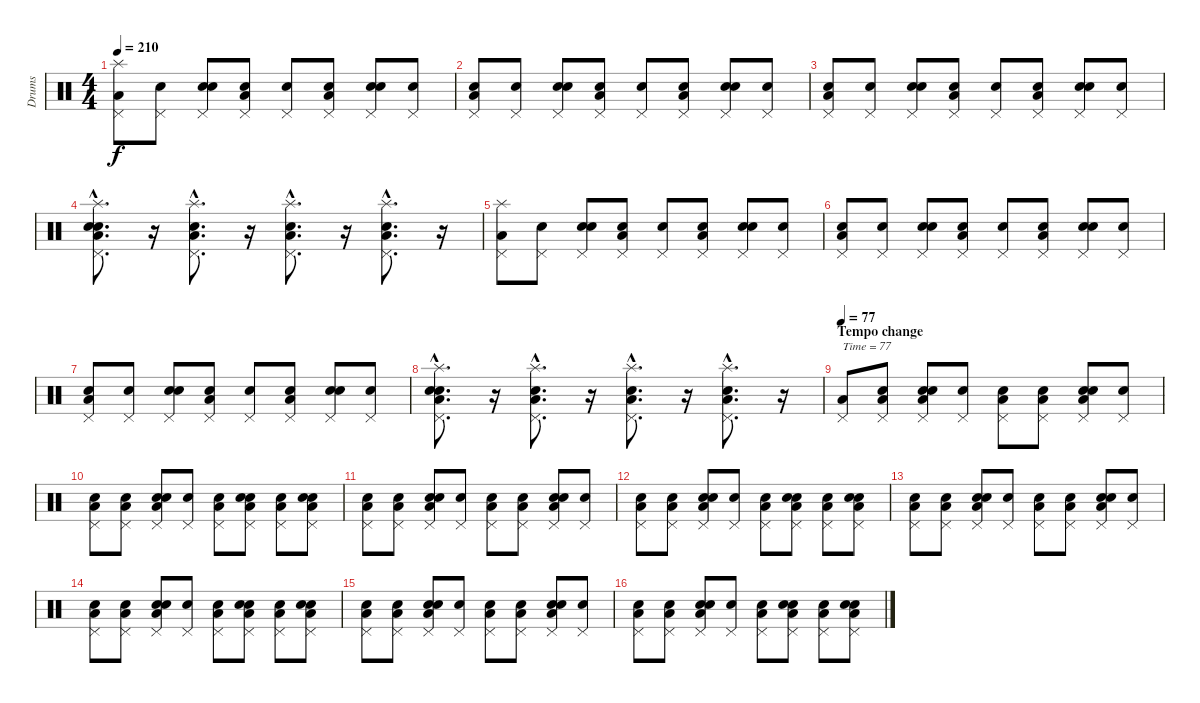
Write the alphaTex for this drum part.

\track ("Drums" "Drums") {instrument percussion}
\staff {score}
\articulation defaults
\ts (4 4)
\tempo 210
\clef neutral
\ks c
("Low Floor Tom (hit)" "Pedal Hi-Hat (hit)" "Splash (hit)").8{dy f} ("Snare (hit)" "Pedal Hi-Hat (hit)").8 ("Snare (hit)" "Electric Snare (hit)" "Pedal Hi-Hat (hit)").8 ("Snare (hit)" "Low Floor Tom (hit)" "Pedal Hi-Hat (hit)").8 ("Snare (hit)" "Pedal Hi-Hat (hit)").8 ("Snare (hit)" "Low Floor Tom (hit)" "Pedal Hi-Hat (hit)").8 ("Snare (hit)" "Electric Snare (hit)" "Pedal Hi-Hat (hit)").8 ("Snare (hit)" "Pedal Hi-Hat (hit)").8 |
("Snare (hit)" "Low Floor Tom (hit)" "Pedal Hi-Hat (hit)").8 ("Snare (hit)" "Pedal Hi-Hat (hit)").8 ("Snare (hit)" "Electric Snare (hit)" "Pedal Hi-Hat (hit)").8 ("Snare (hit)" "Low Floor Tom (hit)" "Pedal Hi-Hat (hit)").8 ("Snare (hit)" "Pedal Hi-Hat (hit)").8 ("Snare (hit)" "Low Floor Tom (hit)" "Pedal Hi-Hat (hit)").8 ("Snare (hit)" "Electric Snare (hit)" "Pedal Hi-Hat (hit)").8 ("Snare (hit)" "Pedal Hi-Hat (hit)").8 |
("Snare (hit)" "Low Floor Tom (hit)" "Pedal Hi-Hat (hit)").8 ("Snare (hit)" "Pedal Hi-Hat (hit)").8 ("Snare (hit)" "Electric Snare (hit)" "Pedal Hi-Hat (hit)").8 ("Snare (hit)" "Low Floor Tom (hit)" "Pedal Hi-Hat (hit)").8 ("Snare (hit)" "Pedal Hi-Hat (hit)").8 ("Snare (hit)" "Low Floor Tom (hit)" "Pedal Hi-Hat (hit)").8 ("Snare (hit)" "Electric Snare (hit)" "Pedal Hi-Hat (hit)").8 ("Snare (hit)" "Pedal Hi-Hat (hit)").8 |
("Snare (hit)"{hac} "Electric Snare (hit)"{hac} "Low Floor Tom (hit)"{hac} "Pedal Hi-Hat (hit)"{hac} "Splash (hit)"{hac}).8{d} r.16 ("Electric Snare (hit)"{hac} "Low Floor Tom (hit)"{hac} "Pedal Hi-Hat (hit)"{hac} "Splash (hit)"{hac}).8{d} r.16 ("Electric Snare (hit)"{hac} "Low Floor Tom (hit)"{hac} "Pedal Hi-Hat (hit)"{hac} "Splash (hit)"{hac}).8{d} r.16 ("Electric Snare (hit)"{hac} "Low Floor Tom (hit)"{hac} "Pedal Hi-Hat (hit)"{hac} "Splash (hit)"{hac}).8{d} r.16 |
("Low Floor Tom (hit)" "Pedal Hi-Hat (hit)" "Splash (hit)").8 ("Snare (hit)" "Pedal Hi-Hat (hit)").8 ("Snare (hit)" "Electric Snare (hit)" "Pedal Hi-Hat (hit)").8 ("Snare (hit)" "Low Floor Tom (hit)" "Pedal Hi-Hat (hit)").8 ("Snare (hit)" "Pedal Hi-Hat (hit)").8 ("Snare (hit)" "Low Floor Tom (hit)" "Pedal Hi-Hat (hit)").8 ("Snare (hit)" "Electric Snare (hit)" "Pedal Hi-Hat (hit)").8 ("Snare (hit)" "Pedal Hi-Hat (hit)").8 |
("Snare (hit)" "Low Floor Tom (hit)" "Pedal Hi-Hat (hit)").8 ("Snare (hit)" "Pedal Hi-Hat (hit)").8 ("Snare (hit)" "Electric Snare (hit)" "Pedal Hi-Hat (hit)").8 ("Snare (hit)" "Low Floor Tom (hit)" "Pedal Hi-Hat (hit)").8 ("Snare (hit)" "Pedal Hi-Hat (hit)").8 ("Snare (hit)" "Low Floor Tom (hit)" "Pedal Hi-Hat (hit)").8 ("Snare (hit)" "Electric Snare (hit)" "Pedal Hi-Hat (hit)").8 ("Snare (hit)" "Pedal Hi-Hat (hit)").8 |
("Snare (hit)" "Low Floor Tom (hit)" "Pedal Hi-Hat (hit)").8 ("Snare (hit)" "Pedal Hi-Hat (hit)").8 ("Snare (hit)" "Electric Snare (hit)" "Pedal Hi-Hat (hit)").8 ("Snare (hit)" "Low Floor Tom (hit)" "Pedal Hi-Hat (hit)").8 ("Snare (hit)" "Pedal Hi-Hat (hit)").8 ("Snare (hit)" "Low Floor Tom (hit)" "Pedal Hi-Hat (hit)").8 ("Snare (hit)" "Electric Snare (hit)" "Pedal Hi-Hat (hit)").8 ("Snare (hit)" "Pedal Hi-Hat (hit)").8 |
("Snare (hit)"{hac} "Electric Snare (hit)"{hac} "Low Floor Tom (hit)"{hac} "Pedal Hi-Hat (hit)"{hac} "Splash (hit)"{hac}).8{d} r.16 ("Electric Snare (hit)"{hac} "Low Floor Tom (hit)"{hac} "Pedal Hi-Hat (hit)"{hac} "Splash (hit)"{hac}).8{d} r.16 ("Electric Snare (hit)"{hac} "Low Floor Tom (hit)"{hac} "Pedal Hi-Hat (hit)"{hac} "Splash (hit)"{hac}).8{d} r.16 ("Electric Snare (hit)"{hac} "Low Floor Tom (hit)"{hac} "Pedal Hi-Hat (hit)"{hac} "Splash (hit)"{hac}).8{d} r.16 |
\section ("" "Tempo change")
\tempo 77
("Low Floor Tom (hit)" "Pedal Hi-Hat (hit)").8{txt "Time = 77"} ("Snare (hit)" "Low Floor Tom (hit)" "Pedal Hi-Hat (hit)").8 ("Snare (hit)" "Electric Snare (hit)" "Low Floor Tom (hit)" "Pedal Hi-Hat (hit)").8 ("Snare (hit)" "Pedal Hi-Hat (hit)").8 ("Snare (hit)" "Low Floor Tom (hit)" "Pedal Hi-Hat (hit)").8 ("Snare (hit)" "Low Floor Tom (hit)" "Pedal Hi-Hat (hit)").8 ("Snare (hit)" "Electric Snare (hit)" "Low Floor Tom (hit)" "Pedal Hi-Hat (hit)").8 ("Snare (hit)" "Pedal Hi-Hat (hit)").8 |
("Snare (hit)" "Low Floor Tom (hit)" "Pedal Hi-Hat (hit)").8 ("Snare (hit)" "Low Floor Tom (hit)" "Pedal Hi-Hat (hit)").8 ("Snare (hit)" "Electric Snare (hit)" "Low Floor Tom (hit)" "Pedal Hi-Hat (hit)").8 ("Snare (hit)" "Pedal Hi-Hat (hit)").8 ("Snare (hit)" "Low Floor Tom (hit)" "Pedal Hi-Hat (hit)").8 ("Snare (hit)" "Electric Snare (hit)" "Low Floor Tom (hit)" "Pedal Hi-Hat (hit)").8 ("Snare (hit)" "Low Floor Tom (hit)" "Pedal Hi-Hat (hit)").8 ("Snare (hit)" "Electric Snare (hit)" "Low Floor Tom (hit)" "Pedal Hi-Hat (hit)").8 |
("Snare (hit)" "Low Floor Tom (hit)" "Pedal Hi-Hat (hit)").8 ("Snare (hit)" "Low Floor Tom (hit)" "Pedal Hi-Hat (hit)").8 ("Snare (hit)" "Electric Snare (hit)" "Low Floor Tom (hit)" "Pedal Hi-Hat (hit)").8 ("Snare (hit)" "Pedal Hi-Hat (hit)").8 ("Snare (hit)" "Low Floor Tom (hit)" "Pedal Hi-Hat (hit)").8 ("Snare (hit)" "Low Floor Tom (hit)" "Pedal Hi-Hat (hit)").8 ("Snare (hit)" "Electric Snare (hit)" "Low Floor Tom (hit)" "Pedal Hi-Hat (hit)").8 ("Snare (hit)" "Pedal Hi-Hat (hit)").8 |
("Snare (hit)" "Low Floor Tom (hit)" "Pedal Hi-Hat (hit)").8 ("Snare (hit)" "Low Floor Tom (hit)" "Pedal Hi-Hat (hit)").8 ("Snare (hit)" "Electric Snare (hit)" "Low Floor Tom (hit)" "Pedal Hi-Hat (hit)").8 ("Snare (hit)" "Pedal Hi-Hat (hit)").8 ("Snare (hit)" "Low Floor Tom (hit)" "Pedal Hi-Hat (hit)").8 ("Snare (hit)" "Electric Snare (hit)" "Low Floor Tom (hit)" "Pedal Hi-Hat (hit)").8 ("Snare (hit)" "Low Floor Tom (hit)" "Pedal Hi-Hat (hit)").8 ("Snare (hit)" "Electric Snare (hit)" "Low Floor Tom (hit)" "Pedal Hi-Hat (hit)").8 |
("Snare (hit)" "Low Floor Tom (hit)" "Pedal Hi-Hat (hit)").8 ("Snare (hit)" "Low Floor Tom (hit)" "Pedal Hi-Hat (hit)").8 ("Snare (hit)" "Electric Snare (hit)" "Low Floor Tom (hit)" "Pedal Hi-Hat (hit)").8 ("Snare (hit)" "Pedal Hi-Hat (hit)").8 ("Snare (hit)" "Low Floor Tom (hit)" "Pedal Hi-Hat (hit)").8 ("Snare (hit)" "Low Floor Tom (hit)" "Pedal Hi-Hat (hit)").8 ("Snare (hit)" "Electric Snare (hit)" "Low Floor Tom (hit)" "Pedal Hi-Hat (hit)").8 ("Snare (hit)" "Pedal Hi-Hat (hit)").8 |
("Snare (hit)" "Low Floor Tom (hit)" "Pedal Hi-Hat (hit)").8 ("Snare (hit)" "Low Floor Tom (hit)" "Pedal Hi-Hat (hit)").8 ("Snare (hit)" "Electric Snare (hit)" "Low Floor Tom (hit)" "Pedal Hi-Hat (hit)").8 ("Snare (hit)" "Pedal Hi-Hat (hit)").8 ("Snare (hit)" "Low Floor Tom (hit)" "Pedal Hi-Hat (hit)").8 ("Snare (hit)" "Electric Snare (hit)" "Low Floor Tom (hit)" "Pedal Hi-Hat (hit)").8 ("Snare (hit)" "Low Floor Tom (hit)" "Pedal Hi-Hat (hit)").8 ("Snare (hit)" "Electric Snare (hit)" "Low Floor Tom (hit)" "Pedal Hi-Hat (hit)").8 |
("Snare (hit)" "Low Floor Tom (hit)" "Pedal Hi-Hat (hit)").8 ("Snare (hit)" "Low Floor Tom (hit)" "Pedal Hi-Hat (hit)").8 ("Snare (hit)" "Electric Snare (hit)" "Low Floor Tom (hit)" "Pedal Hi-Hat (hit)").8 ("Snare (hit)" "Pedal Hi-Hat (hit)").8 ("Snare (hit)" "Low Floor Tom (hit)" "Pedal Hi-Hat (hit)").8 ("Snare (hit)" "Low Floor Tom (hit)" "Pedal Hi-Hat (hit)").8 ("Snare (hit)" "Electric Snare (hit)" "Low Floor Tom (hit)" "Pedal Hi-Hat (hit)").8 ("Snare (hit)" "Pedal Hi-Hat (hit)").8 |
("Snare (hit)" "Low Floor Tom (hit)" "Pedal Hi-Hat (hit)").8 ("Snare (hit)" "Low Floor Tom (hit)" "Pedal Hi-Hat (hit)").8 ("Snare (hit)" "Electric Snare (hit)" "Low Floor Tom (hit)" "Pedal Hi-Hat (hit)").8 ("Snare (hit)" "Pedal Hi-Hat (hit)").8 ("Snare (hit)" "Low Floor Tom (hit)" "Pedal Hi-Hat (hit)").8 ("Snare (hit)" "Electric Snare (hit)" "Low Floor Tom (hit)" "Pedal Hi-Hat (hit)").8 ("Snare (hit)" "Low Floor Tom (hit)" "Pedal Hi-Hat (hit)").8 ("Snare (hit)" "Electric Snare (hit)" "Low Floor Tom (hit)" "Pedal Hi-Hat (hit)").8
